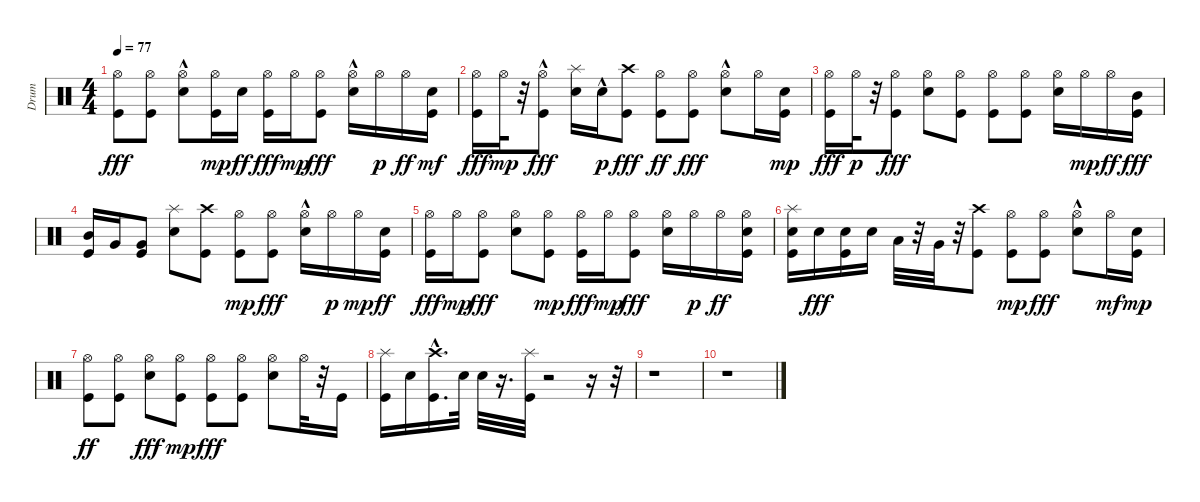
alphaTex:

\track ("Drum" "Drum") {instrument percussion}
\staff {score}
\articulation defaults
\ts (4 4)
\tempo 77
\clef neutral
\ks c
("Kick (hit)" "Hi-Hat (open)").8{dy fff} ("Kick (hit)" "Hi-Hat (open)").8 ("Hi-Hat (open)" "Snare (hit) 2"{hac}).8 ("Kick (hit)" "Hi-Hat (open)").16{dy mp} "Snare (hit) 2".16{dy ff} ("Kick (hit)" "Hi-Hat (open)").16{dy fff} "Hi-Hat (open)".16{dy mp} ("Kick (hit)" "Hi-Hat (open)").8{dy fff} ("Hi-Hat (open)" "Snare (hit) 2"{hac}).16 "Hi-Hat (open)".16{dy p} "Hi-Hat (open)".16{dy ff} ("Kick (hit)" "Snare (hit) 2").16{dy mf} |
("Kick (hit)" "Hi-Hat (open)").16{dy fff} "Hi-Hat (open)".32{dy mp} r.32 ("Kick (hit)" "Hi-Hat (open)"{hac}).8{dy fff} ("Splash (hit)" "Snare (hit) 2").16 "Snare (hit) 2"{hac}.16{dy p} ("Kick (hit)" "Crash high (hit)").8{dy fff} ("Kick (hit)" "Hi-Hat (open)").8{dy ff} ("Kick (hit)" "Hi-Hat (open)").8{dy fff} ("Hi-Hat (open)" "Snare (hit) 2"{hac}).8 "Hi-Hat (open)".16 ("Kick (hit)" "Snare (hit) 2").16{dy mp} |
("Kick (hit)" "Hi-Hat (open)").16{dy fff} "Hi-Hat (open)".32{dy p} r.32 ("Kick (hit)" "Hi-Hat (open)").8{dy fff} ("Hi-Hat (open)" "Snare (hit) 2").8 ("Kick (hit)" "Hi-Hat (open)").8 ("Kick (hit)" "Hi-Hat (open)").8 ("Kick (hit)" "Hi-Hat (open)").8 ("Hi-Hat (open)" "Snare (hit) 2").16 "Hi-Hat (open)".16{dy mp} "Hi-Hat (open)".16{dy ff} ("Kick (hit)" "Mid Tom (hit)").16{dy fff} |
("Kick (hit)" "Mid Tom (hit)").16 "Very Low Tom (hit)".16 ("Kick (hit)" "Very Low Tom (hit)").8 ("Splash (hit)" "Snare (hit) 2").8 ("Kick (hit)" "Crash high (hit)").8 ("Kick (hit)" "Hi-Hat (open)").8{dy mp} ("Kick (hit)" "Hi-Hat (open)").8{dy fff} ("Hi-Hat (open)" "Snare (hit) 2"{hac}).16 "Hi-Hat (open)".16{dy p} "Hi-Hat (open)".16{dy mp} ("Kick (hit)" "Snare (hit) 2").16{dy ff} |
("Kick (hit)" "Hi-Hat (open)").16{dy fff} "Hi-Hat (open)".16{dy mp} ("Kick (hit)" "Hi-Hat (open)").8{dy fff} ("Hi-Hat (open)" "Snare (hit) 2").8 ("Kick (hit)" "Hi-Hat (open)").8{dy mp} ("Kick (hit)" "Hi-Hat (open)").16{dy fff} "Hi-Hat (open)".16{dy mp} ("Kick (hit)" "Hi-Hat (open)").8{dy fff} ("Hi-Hat (open)" "Snare (hit) 2").16 "Hi-Hat (open)".16{dy p} "Hi-Hat (open)".16{dy ff} ("Kick (hit)" "Snare (hit) 2" "Hi-Hat (open)").16 |
("Kick (hit)" "Splash (hit)" "Snare (hit) 2").16 "Snare (hit) 2".16{dy fff} ("Kick (hit)" "Snare (hit) 2").16 "Snare (hit) 2".16 "Low Tom (hit)".32 r.32 "Very Low Tom (hit)".32 r.32 ("Kick (hit)" "Crash high (hit)").8 ("Kick (hit)" "Hi-Hat (open)").8{dy mp} ("Kick (hit)" "Hi-Hat (open)").8{dy fff} ("Hi-Hat (open)" "Snare (hit) 2"{hac}).8 "Hi-Hat (open)".16{dy mf} ("Kick (hit)" "Snare (hit) 2").16{dy mp} |
("Kick (hit)" "Hi-Hat (open)").8{dy ff} ("Kick (hit)" "Hi-Hat (open)").8 ("Hi-Hat (open)" "Snare (hit) 2").8{dy fff} ("Kick (hit)" "Hi-Hat (open)").8{dy mp} ("Kick (hit)" "Hi-Hat (open)").8{dy fff} ("Kick (hit)" "Hi-Hat (open)").8 ("Hi-Hat (open)" "Snare (hit) 2").8 "Hi-Hat (open)".32 r.32 "Kick (hit)".16 |
("Kick (hit)" "Splash (hit)").16 "Snare (hit) 2".16 ("Kick (hit)"{hac} "Crash high (hit)").16{d} "Snare (hit) 2".32 "Snare (hit) 2".32 r.16{d} ("Kick (hit)" "Splash (hit)").32 r.2 r.16 r.32 |
r.1 |
r.1
